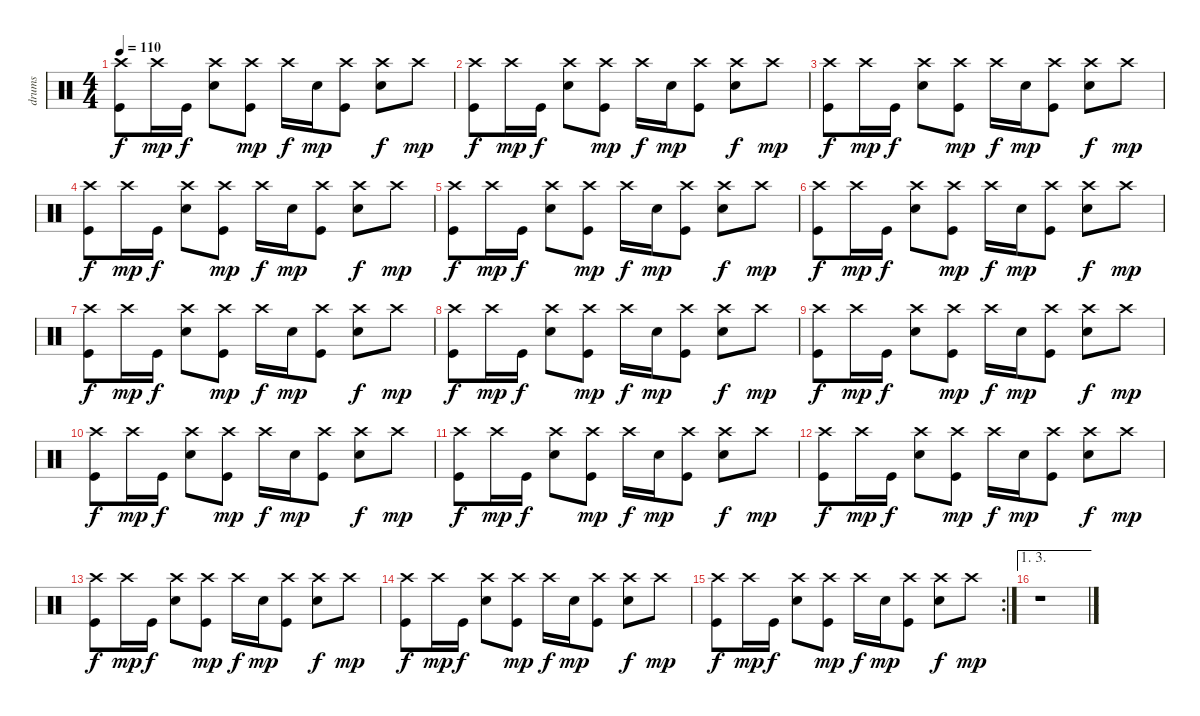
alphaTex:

\track ("drums" "drums") {instrument percussion}
\staff {score}
\articulation defaults
\ts (4 4)
\tempo 110
\clef neutral
\ks c
("Crash high (hit)" "Kick (hit)").8{dy f} "Crash high (hit)".16{dy mp} "Kick (hit)".16{dy f} ("Crash high (hit)" "Electric Snare (hit)").8 ("Crash high (hit)" "Kick (hit)").8{dy mp} "Crash high (hit)".16{dy f} "Electric Snare (hit)".16{dy mp} ("Crash high (hit)" "Kick (hit)").8 ("Crash high (hit)" "Electric Snare (hit)").8{dy f} "Crash high (hit)".8{dy mp} |
("Crash high (hit)" "Kick (hit)").8{dy f} "Crash high (hit)".16{dy mp} "Kick (hit)".16{dy f} ("Crash high (hit)" "Electric Snare (hit)").8 ("Crash high (hit)" "Kick (hit)").8{dy mp} "Crash high (hit)".16{dy f} "Electric Snare (hit)".16{dy mp} ("Crash high (hit)" "Kick (hit)").8 ("Crash high (hit)" "Electric Snare (hit)").8{dy f} "Crash high (hit)".8{dy mp} |
("Crash high (hit)" "Kick (hit)").8{dy f} "Crash high (hit)".16{dy mp} "Kick (hit)".16{dy f} ("Crash high (hit)" "Electric Snare (hit)").8 ("Crash high (hit)" "Kick (hit)").8{dy mp} "Crash high (hit)".16{dy f} "Electric Snare (hit)".16{dy mp} ("Crash high (hit)" "Kick (hit)").8 ("Crash high (hit)" "Electric Snare (hit)").8{dy f} "Crash high (hit)".8{dy mp} |
("Crash high (hit)" "Kick (hit)").8{dy f} "Crash high (hit)".16{dy mp} "Kick (hit)".16{dy f} ("Crash high (hit)" "Electric Snare (hit)").8 ("Crash high (hit)" "Kick (hit)").8{dy mp} "Crash high (hit)".16{dy f} "Electric Snare (hit)".16{dy mp} ("Crash high (hit)" "Kick (hit)").8 ("Crash high (hit)" "Electric Snare (hit)").8{dy f} "Crash high (hit)".8{dy mp} |
("Crash high (hit)" "Kick (hit)").8{dy f} "Crash high (hit)".16{dy mp} "Kick (hit)".16{dy f} ("Crash high (hit)" "Electric Snare (hit)").8 ("Crash high (hit)" "Kick (hit)").8{dy mp} "Crash high (hit)".16{dy f} "Electric Snare (hit)".16{dy mp} ("Crash high (hit)" "Kick (hit)").8 ("Crash high (hit)" "Electric Snare (hit)").8{dy f} "Crash high (hit)".8{dy mp} |
("Crash high (hit)" "Kick (hit)").8{dy f} "Crash high (hit)".16{dy mp} "Kick (hit)".16{dy f} ("Crash high (hit)" "Electric Snare (hit)").8 ("Crash high (hit)" "Kick (hit)").8{dy mp} "Crash high (hit)".16{dy f} "Electric Snare (hit)".16{dy mp} ("Crash high (hit)" "Kick (hit)").8 ("Crash high (hit)" "Electric Snare (hit)").8{dy f} "Crash high (hit)".8{dy mp} |
("Crash high (hit)" "Kick (hit)").8{dy f} "Crash high (hit)".16{dy mp} "Kick (hit)".16{dy f} ("Crash high (hit)" "Electric Snare (hit)").8 ("Crash high (hit)" "Kick (hit)").8{dy mp} "Crash high (hit)".16{dy f} "Electric Snare (hit)".16{dy mp} ("Crash high (hit)" "Kick (hit)").8 ("Crash high (hit)" "Electric Snare (hit)").8{dy f} "Crash high (hit)".8{dy mp} |
("Crash high (hit)" "Kick (hit)").8{dy f} "Crash high (hit)".16{dy mp} "Kick (hit)".16{dy f} ("Crash high (hit)" "Electric Snare (hit)").8 ("Crash high (hit)" "Kick (hit)").8{dy mp} "Crash high (hit)".16{dy f} "Electric Snare (hit)".16{dy mp} ("Crash high (hit)" "Kick (hit)").8 ("Crash high (hit)" "Electric Snare (hit)").8{dy f} "Crash high (hit)".8{dy mp} |
("Crash high (hit)" "Kick (hit)").8{dy f} "Crash high (hit)".16{dy mp} "Kick (hit)".16{dy f} ("Crash high (hit)" "Electric Snare (hit)").8 ("Crash high (hit)" "Kick (hit)").8{dy mp} "Crash high (hit)".16{dy f} "Electric Snare (hit)".16{dy mp} ("Crash high (hit)" "Kick (hit)").8 ("Crash high (hit)" "Electric Snare (hit)").8{dy f} "Crash high (hit)".8{dy mp} |
("Crash high (hit)" "Kick (hit)").8{dy f} "Crash high (hit)".16{dy mp} "Kick (hit)".16{dy f} ("Crash high (hit)" "Electric Snare (hit)").8 ("Crash high (hit)" "Kick (hit)").8{dy mp} "Crash high (hit)".16{dy f} "Electric Snare (hit)".16{dy mp} ("Crash high (hit)" "Kick (hit)").8 ("Crash high (hit)" "Electric Snare (hit)").8{dy f} "Crash high (hit)".8{dy mp} |
("Crash high (hit)" "Kick (hit)").8{dy f} "Crash high (hit)".16{dy mp} "Kick (hit)".16{dy f} ("Crash high (hit)" "Electric Snare (hit)").8 ("Crash high (hit)" "Kick (hit)").8{dy mp} "Crash high (hit)".16{dy f} "Electric Snare (hit)".16{dy mp} ("Crash high (hit)" "Kick (hit)").8 ("Crash high (hit)" "Electric Snare (hit)").8{dy f} "Crash high (hit)".8{dy mp} |
("Crash high (hit)" "Kick (hit)").8{dy f} "Crash high (hit)".16{dy mp} "Kick (hit)".16{dy f} ("Crash high (hit)" "Electric Snare (hit)").8 ("Crash high (hit)" "Kick (hit)").8{dy mp} "Crash high (hit)".16{dy f} "Electric Snare (hit)".16{dy mp} ("Crash high (hit)" "Kick (hit)").8 ("Crash high (hit)" "Electric Snare (hit)").8{dy f} "Crash high (hit)".8{dy mp} |
("Crash high (hit)" "Kick (hit)").8{dy f} "Crash high (hit)".16{dy mp} "Kick (hit)".16{dy f} ("Crash high (hit)" "Electric Snare (hit)").8 ("Crash high (hit)" "Kick (hit)").8{dy mp} "Crash high (hit)".16{dy f} "Electric Snare (hit)".16{dy mp} ("Crash high (hit)" "Kick (hit)").8 ("Crash high (hit)" "Electric Snare (hit)").8{dy f} "Crash high (hit)".8{dy mp} |
("Crash high (hit)" "Kick (hit)").8{dy f} "Crash high (hit)".16{dy mp} "Kick (hit)".16{dy f} ("Crash high (hit)" "Electric Snare (hit)").8 ("Crash high (hit)" "Kick (hit)").8{dy mp} "Crash high (hit)".16{dy f} "Electric Snare (hit)".16{dy mp} ("Crash high (hit)" "Kick (hit)").8 ("Crash high (hit)" "Electric Snare (hit)").8{dy f} "Crash high (hit)".8{dy mp} |
\rc 2
("Crash high (hit)" "Kick (hit)").8{dy f} "Crash high (hit)".16{dy mp} "Kick (hit)".16{dy f} ("Crash high (hit)" "Electric Snare (hit)").8 ("Crash high (hit)" "Kick (hit)").8{dy mp} "Crash high (hit)".16{dy f} "Electric Snare (hit)".16{dy mp} ("Crash high (hit)" "Kick (hit)").8 ("Crash high (hit)" "Electric Snare (hit)").8{dy f} "Crash high (hit)".8{dy mp} |
\ae (1 3)
r.1
